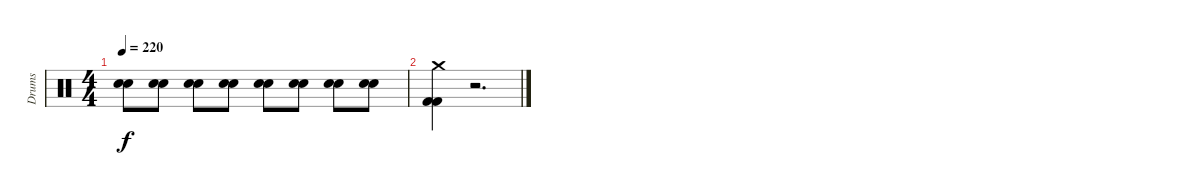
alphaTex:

\track ("Drums" "Drums") {instrument percussion}
\staff {score}
\articulation defaults
\ts (4 4)
\tempo 220
\clef neutral
\ks c
("Snare (hit) 2" "Snare (hit) 2").8{dy f} ("Snare (hit) 2" "Snare (hit) 2").8 ("Snare (hit) 2" "Snare (hit) 2").8 ("Snare (hit) 2" "Snare (hit) 2").8 ("Snare (hit) 2" "Snare (hit) 2").8 ("Snare (hit) 2" "Snare (hit) 2").8 ("Snare (hit) 2" "Snare (hit) 2").8 ("Snare (hit) 2" "Snare (hit) 2").8 |
("Crash medium (hit)" "Kick (hit) 2" "Kick (hit) 2").4 r.2{d}
